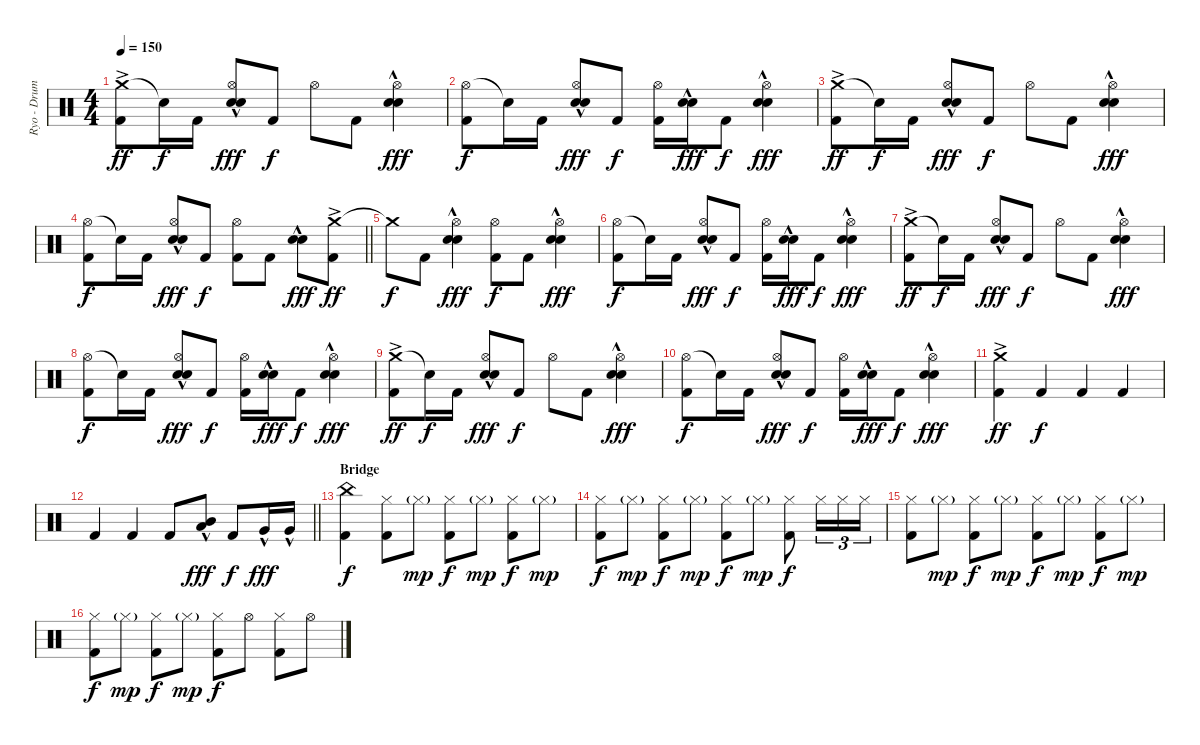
\track ("Ryo - Drums" "Ryo - Drum") {instrument percussion}
\staff {score}
\articulation defaults
\ts (4 4)
\tempo 150
\clef neutral
\ks c
("Crash medium (hit)"{ac} "Kick (hit) 2").8{dy ff} "Snare (hit)"{t}.16{dy f} "Kick (hit) 2".16 ("Hi-Hat (open)" "Electric Snare (hit)"{hac} "Snare (hit) 2"{hac}).8{dy fff} "Kick (hit) 2".8{dy f} "Hi-Hat (open)".8 "Kick (hit) 2".8 ("Hi-Hat (open)" "Electric Snare (hit)"{hac} "Snare (hit) 2"{hac}).4{dy fff} |
("Hi-Hat (open)" "Kick (hit) 2").8{dy f} "Snare (hit)"{t}.16 "Kick (hit) 2".16 ("Hi-Hat (open)" "Electric Snare (hit)"{hac} "Snare (hit) 2"{hac}).8{dy fff} "Kick (hit) 2".8{dy f} ("Hi-Hat (open)" "Kick (hit) 2").16 ("Electric Snare (hit)"{hac} "Snare (hit) 2"{hac}).16{dy fff} "Kick (hit) 2".8{dy f} ("Hi-Hat (open)" "Electric Snare (hit)"{hac} "Snare (hit) 2"{hac}).4{dy fff} |
("Crash medium (hit)"{ac} "Kick (hit) 2").8{dy ff} "Snare (hit)"{t}.16{dy f} "Kick (hit) 2".16 ("Hi-Hat (open)" "Electric Snare (hit)"{hac} "Snare (hit) 2"{hac}).8{dy fff} "Kick (hit) 2".8{dy f} "Hi-Hat (open)".8 "Kick (hit) 2".8 ("Hi-Hat (open)" "Electric Snare (hit)"{hac} "Snare (hit) 2"{hac}).4{dy fff} |
\barLineRight lightlight
("Hi-Hat (open)" "Kick (hit) 2").8{dy f} "Snare (hit)"{t}.16 "Kick (hit) 2".16 ("Hi-Hat (open)" "Electric Snare (hit)"{hac} "Snare (hit) 2"{hac}).8{dy fff} "Kick (hit) 2".8{dy f} ("Hi-Hat (open)" "Kick (hit) 2").8 "Kick (hit) 2".8 ("Electric Snare (hit)"{hac} "Snare (hit) 2"{hac}).8{dy fff} ("Crash medium (hit)"{ac} "Kick (hit) 2").8{dy ff} |
\section ("" "")
"Crash medium (hit)"{t}.8{dy f} "Kick (hit) 2".8 ("Hi-Hat (open)" "Electric Snare (hit)"{hac} "Snare (hit) 2"{hac}).4{dy fff} ("Hi-Hat (open)" "Kick (hit) 2").8{dy f} "Kick (hit) 2".8 ("Hi-Hat (open)" "Electric Snare (hit)"{hac} "Snare (hit) 2"{hac}).4{dy fff} |
("Hi-Hat (open)" "Kick (hit) 2").8{dy f} "Snare (hit)"{t}.16 "Kick (hit) 2".16 ("Hi-Hat (open)" "Electric Snare (hit)"{hac} "Snare (hit) 2"{hac}).8{dy fff} "Kick (hit) 2".8{dy f} ("Hi-Hat (open)" "Kick (hit) 2").16 ("Electric Snare (hit)"{hac} "Snare (hit) 2"{hac}).16{dy fff} "Kick (hit) 2".8{dy f} ("Hi-Hat (open)" "Electric Snare (hit)"{hac} "Snare (hit) 2"{hac}).4{dy fff} |
("Crash medium (hit)"{ac} "Kick (hit) 2").8{dy ff} "Snare (hit)"{t}.16{dy f} "Kick (hit) 2".16 ("Hi-Hat (open)" "Electric Snare (hit)"{hac} "Snare (hit) 2"{hac}).8{dy fff} "Kick (hit) 2".8{dy f} "Hi-Hat (open)".8 "Kick (hit) 2".8 ("Hi-Hat (open)" "Electric Snare (hit)"{hac} "Snare (hit) 2"{hac}).4{dy fff} |
("Hi-Hat (open)" "Kick (hit) 2").8{dy f} "Snare (hit)"{t}.16 "Kick (hit) 2".16 ("Hi-Hat (open)" "Electric Snare (hit)"{hac} "Snare (hit) 2"{hac}).8{dy fff} "Kick (hit) 2".8{dy f} ("Hi-Hat (open)" "Kick (hit) 2").16 ("Electric Snare (hit)"{hac} "Snare (hit) 2"{hac}).16{dy fff} "Kick (hit) 2".8{dy f} ("Hi-Hat (open)" "Electric Snare (hit)"{hac} "Snare (hit) 2"{hac}).4{dy fff} |
("Crash medium (hit)"{ac} "Kick (hit) 2").8{dy ff} "Snare (hit)"{t}.16{dy f} "Kick (hit) 2".16 ("Hi-Hat (open)" "Electric Snare (hit)"{hac} "Snare (hit) 2"{hac}).8{dy fff} "Kick (hit) 2".8{dy f} "Hi-Hat (open)".8 "Kick (hit) 2".8 ("Hi-Hat (open)" "Electric Snare (hit)"{hac} "Snare (hit) 2"{hac}).4{dy fff} |
("Hi-Hat (open)" "Kick (hit) 2").8{dy f} "Snare (hit)"{t}.16 "Kick (hit) 2".16 ("Hi-Hat (open)" "Electric Snare (hit)"{hac} "Snare (hit) 2"{hac}).8{dy fff} "Kick (hit) 2".8{dy f} ("Hi-Hat (open)" "Kick (hit) 2").16 ("Electric Snare (hit)"{hac} "Snare (hit) 2"{hac}).16{dy fff} "Kick (hit) 2".8{dy f} ("Hi-Hat (open)" "Electric Snare (hit)"{hac} "Snare (hit) 2"{hac}).4{dy fff} |
("Crash medium (hit)"{ac} "Kick (hit) 2").4{dy ff} "Kick (hit) 2".4{dy f} "Kick (hit) 2".4 "Kick (hit) 2".4 |
\barLineRight lightlight "Kick (hit) 2".4 "Kick (hit) 2".4 "Kick (hit) 2".8
("Mid Tom (hit)"{hac} "Low Tom (hit)"{hac}).8{dy fff} "Kick (hit) 2".8{dy f} "Very Low Tom (hit)"{hac}.16{dy fff} "Very Low Tom (hit)"{hac}.16 |
\section ("" "Bridge")
("China (hit)" "Kick (hit) 2").4{dy f} ("Hi-Hat (closed)" "Kick (hit) 2").8 "Hi-Hat (closed)"{g}.8{dy mp} ("Hi-Hat (closed)" "Kick (hit) 2").8{dy f} "Hi-Hat (closed)"{g}.8{dy mp} ("Hi-Hat (closed)" "Kick (hit) 2").8{dy f} "Hi-Hat (closed)"{g}.8{dy mp} |
("Hi-Hat (closed)" "Kick (hit) 2").8{dy f} "Hi-Hat (closed)"{g}.8{dy mp} ("Hi-Hat (closed)" "Kick (hit) 2").8{dy f} "Hi-Hat (closed)"{g}.8{dy mp} ("Hi-Hat (closed)" "Kick (hit) 2").8{dy f} "Hi-Hat (closed)"{g}.8{dy mp} ("Hi-Hat (closed)" "Kick (hit) 2").8{dy f} "Hi-Hat (closed)".16{tu (3 2)} "Hi-Hat (closed)".16{tu (3 2)} "Hi-Hat (closed)".16{tu (3 2)} |
("Hi-Hat (closed)" "Kick (hit) 2").8 "Hi-Hat (closed)"{g}.8{dy mp} ("Hi-Hat (closed)" "Kick (hit) 2").8{dy f} "Hi-Hat (closed)"{g}.8{dy mp} ("Hi-Hat (closed)" "Kick (hit) 2").8{dy f} "Hi-Hat (closed)"{g}.8{dy mp} ("Hi-Hat (closed)" "Kick (hit) 2").8{dy f} "Hi-Hat (closed)"{g}.8{dy mp} |
("Hi-Hat (closed)" "Kick (hit) 2").8{dy f} "Hi-Hat (closed)"{g}.8{dy mp} ("Hi-Hat (closed)" "Kick (hit) 2").8{dy f} "Hi-Hat (closed)"{g}.8{dy mp} ("Hi-Hat (closed)" "Kick (hit) 2").8{dy f} "Hi-Hat (open)".8 ("Hi-Hat (closed)" "Kick (hit) 2").8 "Hi-Hat (open)".8
